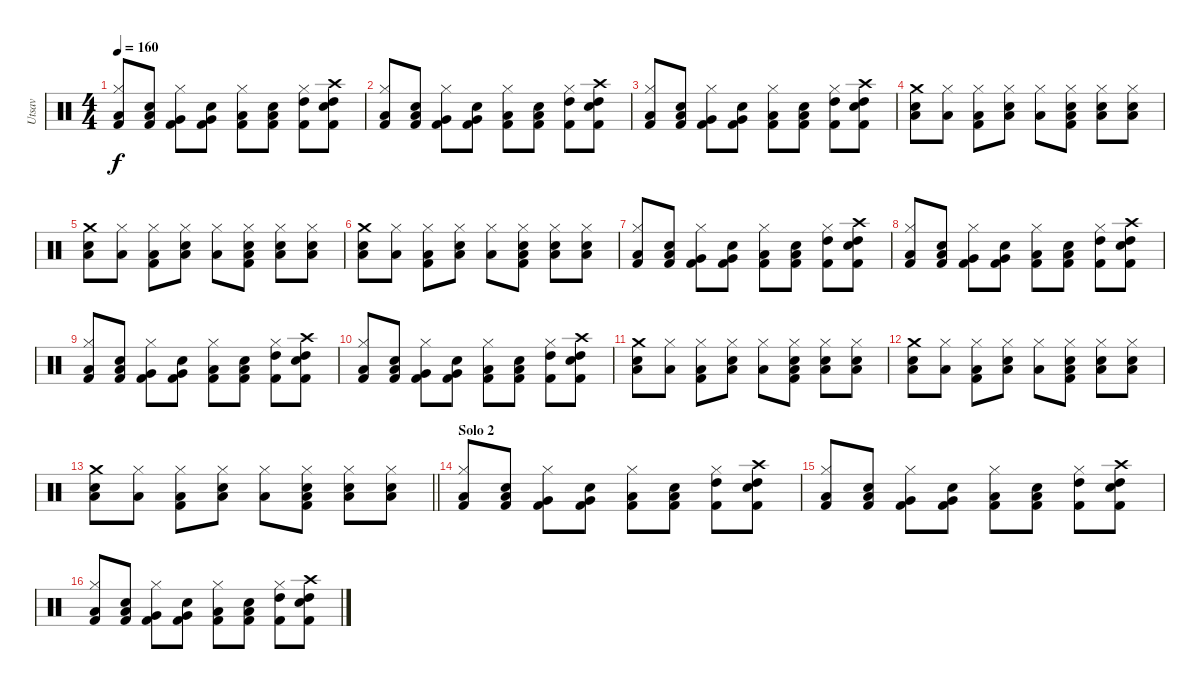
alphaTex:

\track ("Utsav" "Utsav") {instrument percussion}
\staff {score}
\articulation defaults
\ts (4 4)
\tempo 160
\clef neutral
\ks c
("Low Tom (hit)" "Hi-Hat (closed)" "Kick (hit) 2").8{dy f} ("Low Tom (hit)" "Snare (hit) 2" "Kick (hit) 2").8 ("Very Low Tom (hit)" "Hi-Hat (closed)" "Kick (hit) 2").8 ("Very Low Tom (hit)" "Snare (hit) 2" "Kick (hit) 2").8 ("Low Floor Tom (hit)" "Hi-Hat (closed)" "Kick (hit) 2").8 ("Low Floor Tom (hit)" "Snare (hit) 2" "Kick (hit) 2").8 ("High Tom (hit)" "Hi-Hat (closed)" "Kick (hit) 2").8 ("High Tom (hit)" "Crash high (hit)" "Snare (hit) 2" "Kick (hit) 2").8 |
("Low Tom (hit)" "Hi-Hat (closed)" "Kick (hit) 2").8 ("Low Tom (hit)" "Snare (hit) 2" "Kick (hit) 2").8 ("Very Low Tom (hit)" "Hi-Hat (closed)" "Kick (hit) 2").8 ("Very Low Tom (hit)" "Snare (hit) 2" "Kick (hit) 2").8 ("Low Floor Tom (hit)" "Hi-Hat (closed)" "Kick (hit) 2").8 ("Low Floor Tom (hit)" "Snare (hit) 2" "Kick (hit) 2").8 ("High Tom (hit)" "Hi-Hat (closed)" "Kick (hit) 2").8 ("High Tom (hit)" "Crash high (hit)" "Snare (hit) 2" "Kick (hit) 2").8 |
("Low Tom (hit)" "Hi-Hat (closed)" "Kick (hit) 2").8 ("Low Tom (hit)" "Snare (hit) 2" "Kick (hit) 2").8 ("Very Low Tom (hit)" "Hi-Hat (closed)" "Kick (hit) 2").8 ("Very Low Tom (hit)" "Snare (hit) 2" "Kick (hit) 2").8 ("Low Floor Tom (hit)" "Hi-Hat (closed)" "Kick (hit) 2").8 ("Low Floor Tom (hit)" "Snare (hit) 2" "Kick (hit) 2").8 ("High Tom (hit)" "Hi-Hat (closed)" "Kick (hit) 2").8 ("High Tom (hit)" "Crash high (hit)" "Snare (hit) 2" "Kick (hit) 2").8 |
("Crash medium (hit)" "Low Floor Tom (hit)" "Snare (hit) 2").8 ("Low Floor Tom (hit)" "Hi-Hat (closed)").8 ("Low Floor Tom (hit)" "Hi-Hat (closed)" "Kick (hit) 2").8 ("Low Floor Tom (hit)" "Hi-Hat (closed)" "Snare (hit) 2").8 ("Low Floor Tom (hit)" "Hi-Hat (closed)").8 ("Low Floor Tom (hit)" "Hi-Hat (closed)" "Snare (hit) 2" "Kick (hit) 2").8 ("Low Floor Tom (hit)" "Hi-Hat (closed)" "Snare (hit) 2").8 ("Low Floor Tom (hit)" "Hi-Hat (closed)" "Snare (hit) 2").8 |
("Crash medium (hit)" "Low Floor Tom (hit)" "Snare (hit) 2").8 ("Low Floor Tom (hit)" "Hi-Hat (closed)").8 ("Low Floor Tom (hit)" "Hi-Hat (closed)" "Kick (hit) 2").8 ("Low Floor Tom (hit)" "Hi-Hat (closed)" "Snare (hit) 2").8 ("Low Floor Tom (hit)" "Hi-Hat (closed)").8 ("Low Floor Tom (hit)" "Hi-Hat (closed)" "Snare (hit) 2" "Kick (hit) 2").8 ("Low Floor Tom (hit)" "Hi-Hat (closed)" "Snare (hit) 2").8 ("Low Floor Tom (hit)" "Hi-Hat (closed)" "Snare (hit) 2").8 |
("Crash medium (hit)" "Low Floor Tom (hit)" "Snare (hit) 2").8 ("Low Floor Tom (hit)" "Hi-Hat (closed)").8 ("Low Floor Tom (hit)" "Hi-Hat (closed)" "Kick (hit) 2").8 ("Low Floor Tom (hit)" "Hi-Hat (closed)" "Snare (hit) 2").8 ("Low Floor Tom (hit)" "Hi-Hat (closed)").8 ("Low Floor Tom (hit)" "Hi-Hat (closed)" "Snare (hit) 2" "Kick (hit) 2").8 ("Low Floor Tom (hit)" "Hi-Hat (closed)" "Snare (hit) 2").8 ("Low Floor Tom (hit)" "Hi-Hat (closed)" "Snare (hit) 2").8 |
("Low Tom (hit)" "Hi-Hat (closed)" "Kick (hit) 2").8 ("Low Tom (hit)" "Snare (hit) 2" "Kick (hit) 2").8 ("Very Low Tom (hit)" "Hi-Hat (closed)" "Kick (hit) 2").8 ("Very Low Tom (hit)" "Snare (hit) 2" "Kick (hit) 2").8 ("Low Floor Tom (hit)" "Hi-Hat (closed)" "Kick (hit) 2").8 ("Low Floor Tom (hit)" "Snare (hit) 2" "Kick (hit) 2").8 ("High Tom (hit)" "Hi-Hat (closed)" "Kick (hit) 2").8 ("High Tom (hit)" "Crash high (hit)" "Snare (hit) 2" "Kick (hit) 2").8 |
("Low Tom (hit)" "Hi-Hat (closed)" "Kick (hit) 2").8 ("Low Tom (hit)" "Snare (hit) 2" "Kick (hit) 2").8 ("Very Low Tom (hit)" "Hi-Hat (closed)" "Kick (hit) 2").8 ("Very Low Tom (hit)" "Snare (hit) 2" "Kick (hit) 2").8 ("Low Floor Tom (hit)" "Hi-Hat (closed)" "Kick (hit) 2").8 ("Low Floor Tom (hit)" "Snare (hit) 2" "Kick (hit) 2").8 ("High Tom (hit)" "Hi-Hat (closed)" "Kick (hit) 2").8 ("High Tom (hit)" "Crash high (hit)" "Snare (hit) 2" "Kick (hit) 2").8 |
("Low Tom (hit)" "Hi-Hat (closed)" "Kick (hit) 2").8 ("Low Tom (hit)" "Snare (hit) 2" "Kick (hit) 2").8 ("Very Low Tom (hit)" "Hi-Hat (closed)" "Kick (hit) 2").8 ("Very Low Tom (hit)" "Snare (hit) 2" "Kick (hit) 2").8 ("Low Floor Tom (hit)" "Hi-Hat (closed)" "Kick (hit) 2").8 ("Low Floor Tom (hit)" "Snare (hit) 2" "Kick (hit) 2").8 ("High Tom (hit)" "Hi-Hat (closed)" "Kick (hit) 2").8 ("High Tom (hit)" "Crash high (hit)" "Snare (hit) 2" "Kick (hit) 2").8 |
("Low Tom (hit)" "Hi-Hat (closed)" "Kick (hit) 2").8 ("Low Tom (hit)" "Snare (hit) 2" "Kick (hit) 2").8 ("Very Low Tom (hit)" "Hi-Hat (closed)" "Kick (hit) 2").8 ("Very Low Tom (hit)" "Snare (hit) 2" "Kick (hit) 2").8 ("Low Floor Tom (hit)" "Hi-Hat (closed)" "Kick (hit) 2").8 ("Low Floor Tom (hit)" "Snare (hit) 2" "Kick (hit) 2").8 ("High Tom (hit)" "Hi-Hat (closed)" "Kick (hit) 2").8 ("High Tom (hit)" "Crash high (hit)" "Snare (hit) 2" "Kick (hit) 2").8 |
("Crash medium (hit)" "Low Floor Tom (hit)" "Snare (hit) 2").8 ("Low Floor Tom (hit)" "Hi-Hat (closed)").8 ("Low Floor Tom (hit)" "Hi-Hat (closed)" "Kick (hit) 2").8 ("Low Floor Tom (hit)" "Hi-Hat (closed)" "Snare (hit) 2").8 ("Low Floor Tom (hit)" "Hi-Hat (closed)").8 ("Low Floor Tom (hit)" "Hi-Hat (closed)" "Snare (hit) 2" "Kick (hit) 2").8 ("Low Floor Tom (hit)" "Hi-Hat (closed)" "Snare (hit) 2").8 ("Low Floor Tom (hit)" "Hi-Hat (closed)" "Snare (hit) 2").8 |
("Crash medium (hit)" "Low Floor Tom (hit)" "Snare (hit) 2").8 ("Low Floor Tom (hit)" "Hi-Hat (closed)").8 ("Low Floor Tom (hit)" "Hi-Hat (closed)" "Kick (hit) 2").8 ("Low Floor Tom (hit)" "Hi-Hat (closed)" "Snare (hit) 2").8 ("Low Floor Tom (hit)" "Hi-Hat (closed)").8 ("Low Floor Tom (hit)" "Hi-Hat (closed)" "Snare (hit) 2" "Kick (hit) 2").8 ("Low Floor Tom (hit)" "Hi-Hat (closed)" "Snare (hit) 2").8 ("Low Floor Tom (hit)" "Hi-Hat (closed)" "Snare (hit) 2").8 |
\barLineRight lightlight
("Crash medium (hit)" "Low Floor Tom (hit)" "Snare (hit) 2").8 ("Low Floor Tom (hit)" "Hi-Hat (closed)").8 ("Low Floor Tom (hit)" "Hi-Hat (closed)" "Kick (hit) 2").8 ("Low Floor Tom (hit)" "Hi-Hat (closed)" "Snare (hit) 2").8 ("Low Floor Tom (hit)" "Hi-Hat (closed)").8 ("Low Floor Tom (hit)" "Hi-Hat (closed)" "Snare (hit) 2" "Kick (hit) 2").8 ("Low Floor Tom (hit)" "Hi-Hat (closed)" "Snare (hit) 2").8 ("Low Floor Tom (hit)" "Hi-Hat (closed)" "Snare (hit) 2").8 |
\section ("" "Solo 2")
("Low Tom (hit)" "Hi-Hat (closed)" "Kick (hit) 2").8 ("Low Tom (hit)" "Snare (hit) 2" "Kick (hit) 2").8 ("Very Low Tom (hit)" "Hi-Hat (closed)" "Kick (hit) 2").8 ("Very Low Tom (hit)" "Snare (hit) 2" "Kick (hit) 2").8 ("Low Floor Tom (hit)" "Hi-Hat (closed)" "Kick (hit) 2").8 ("Low Floor Tom (hit)" "Snare (hit) 2" "Kick (hit) 2").8 ("High Tom (hit)" "Hi-Hat (closed)" "Kick (hit) 2").8 ("High Tom (hit)" "Crash high (hit)" "Snare (hit) 2" "Kick (hit) 2").8 |
("Low Tom (hit)" "Hi-Hat (closed)" "Kick (hit) 2").8 ("Low Tom (hit)" "Snare (hit) 2" "Kick (hit) 2").8 ("Very Low Tom (hit)" "Hi-Hat (closed)" "Kick (hit) 2").8 ("Very Low Tom (hit)" "Snare (hit) 2" "Kick (hit) 2").8 ("Low Floor Tom (hit)" "Hi-Hat (closed)" "Kick (hit) 2").8 ("Low Floor Tom (hit)" "Snare (hit) 2" "Kick (hit) 2").8 ("High Tom (hit)" "Hi-Hat (closed)" "Kick (hit) 2").8 ("High Tom (hit)" "Crash high (hit)" "Snare (hit) 2" "Kick (hit) 2").8 |
("Low Tom (hit)" "Hi-Hat (closed)" "Kick (hit) 2").8 ("Low Tom (hit)" "Snare (hit) 2" "Kick (hit) 2").8 ("Very Low Tom (hit)" "Hi-Hat (closed)" "Kick (hit) 2").8 ("Very Low Tom (hit)" "Snare (hit) 2" "Kick (hit) 2").8 ("Low Floor Tom (hit)" "Hi-Hat (closed)" "Kick (hit) 2").8 ("Low Floor Tom (hit)" "Snare (hit) 2" "Kick (hit) 2").8 ("High Tom (hit)" "Hi-Hat (closed)" "Kick (hit) 2").8 ("High Tom (hit)" "Crash high (hit)" "Snare (hit) 2" "Kick (hit) 2").8
